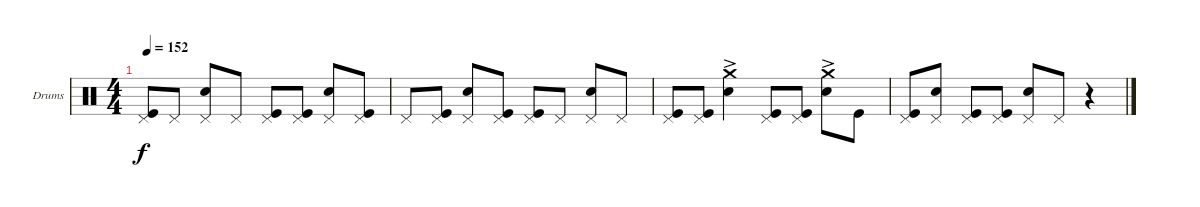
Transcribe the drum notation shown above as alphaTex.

\bracketExtendMode nobrackets
\firstSystemTrackNameOrientation horizontal
\otherSystemsTrackNameOrientation horizontal
\defaultBarNumberDisplay FirstOfSystem
\track ("Drumkit" "Drums") {instrument percussion}
\staff {score}
\articulation defaults
\ts (4 4)
\tempo 152
\clef neutral
\ks c
("Pedal Hi-Hat (hit)" "Kick (hit)").8{dy f} "Pedal Hi-Hat (hit)".8 ("Pedal Hi-Hat (hit)" "Snare (hit) 2").8 "Pedal Hi-Hat (hit)".8 ("Pedal Hi-Hat (hit)" "Kick (hit)").8 ("Pedal Hi-Hat (hit)" "Kick (hit)").8 ("Pedal Hi-Hat (hit)" "Snare (hit) 2").8 ("Pedal Hi-Hat (hit)" "Kick (hit)").8 |
"Pedal Hi-Hat (hit)".8 ("Pedal Hi-Hat (hit)" "Kick (hit)").8 ("Pedal Hi-Hat (hit)" "Snare (hit) 2").8 ("Pedal Hi-Hat (hit)" "Kick (hit)").8 ("Pedal Hi-Hat (hit)" "Kick (hit)").8 "Pedal Hi-Hat (hit)".8 ("Pedal Hi-Hat (hit)" "Snare (hit) 2").8 "Pedal Hi-Hat (hit)".8 |
("Pedal Hi-Hat (hit)" "Kick (hit)").8 ("Pedal Hi-Hat (hit)" "Kick (hit)").8 ("Crash medium (hit)"{ac} "Snare (hit) 2").4 ("Pedal Hi-Hat (hit)" "Kick (hit)").8 ("Pedal Hi-Hat (hit)" "Kick (hit)").8 ("Crash medium (hit)"{ac} "Snare (hit) 2").8 "Kick (hit)".8 |
("Pedal Hi-Hat (hit)" "Kick (hit)").8 ("Pedal Hi-Hat (hit)" "Snare (hit) 2").8 ("Pedal Hi-Hat (hit)" "Kick (hit)").8 ("Pedal Hi-Hat (hit)" "Kick (hit)").8 ("Pedal Hi-Hat (hit)" "Snare (hit) 2").8 "Pedal Hi-Hat (hit)".8 r.4
